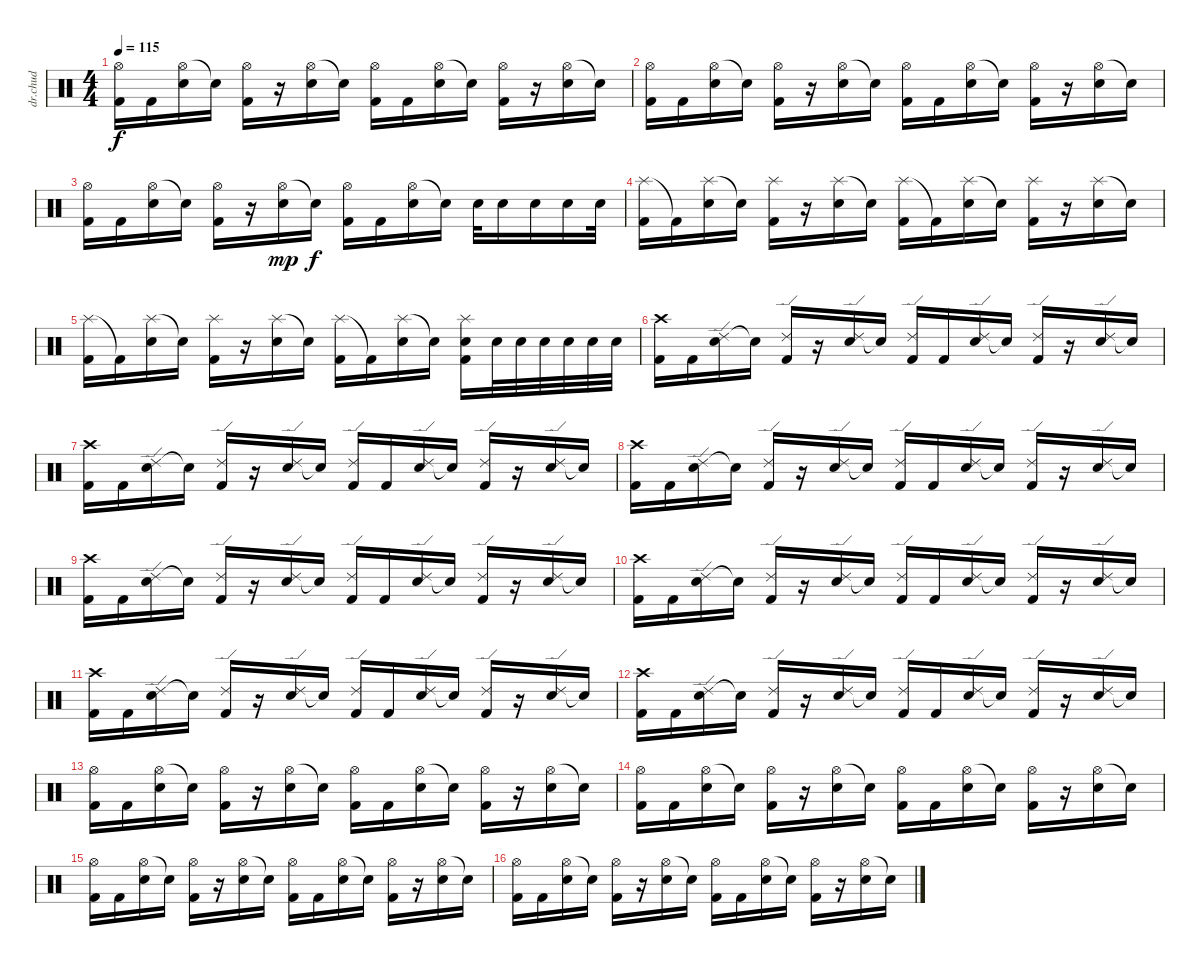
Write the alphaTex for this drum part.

\track ("dr.chud" "dr.chud") {instrument percussion}
\staff {score}
\articulation defaults
\ts (4 4)
\tempo 115
\clef neutral
\ks c
("Hi-Hat (open)" "Kick (hit) 2").16{dy f} "Kick (hit) 2".16 ("Hi-Hat (open)" "Electric Snare (hit)").16 "Snare (hit)"{t}.16 ("Hi-Hat (open)" "Kick (hit) 2").16 r.16 ("Hi-Hat (open)" "Electric Snare (hit)").16 "Electric Snare (hit)"{t}.16 ("Hi-Hat (open)" "Kick (hit) 2").16 "Kick (hit) 2".16 ("Hi-Hat (open)" "Electric Snare (hit)").16 "Snare (hit)"{t}.16 ("Hi-Hat (open)" "Kick (hit) 2").16 r.16 ("Hi-Hat (open)" "Electric Snare (hit)").16 "Snare (hit)"{t}.16 |
("Hi-Hat (open)" "Kick (hit) 2").16 "Kick (hit) 2".16 ("Hi-Hat (open)" "Electric Snare (hit)").16 "Snare (hit)"{t}.16 ("Hi-Hat (open)" "Kick (hit) 2").16 r.16 ("Hi-Hat (open)" "Electric Snare (hit)").16 "Electric Snare (hit)"{t}.16 ("Hi-Hat (open)" "Kick (hit) 2").16 "Kick (hit) 2".16 ("Hi-Hat (open)" "Electric Snare (hit)").16 "Snare (hit)"{t}.16 ("Hi-Hat (open)" "Kick (hit) 2").16 r.16 ("Hi-Hat (open)" "Electric Snare (hit)").16 "Snare (hit)"{t}.16 |
("Hi-Hat (open)" "Kick (hit) 2").16 "Kick (hit) 2".16 ("Hi-Hat (open)" "Electric Snare (hit)").16 "Snare (hit)"{t}.16 ("Hi-Hat (open)" "Kick (hit) 2").16 r.16 ("Hi-Hat (open)" "Electric Snare (hit)").16{dy mp} "Electric Snare (hit)"{t}.16{dy f} ("Hi-Hat (open)" "Kick (hit) 2").16 "Kick (hit) 2".16 ("Hi-Hat (open)" "Electric Snare (hit)").16 "Snare (hit)"{t}.16 "Electric Snare (hit)".32 "Electric Snare (hit)".16 "Electric Snare (hit)".16 "Electric Snare (hit)".16 "Electric Snare (hit)".32 |
("Splash (hit)" "Kick (hit) 2").16 "Kick (hit) 2"{t}.16 ("Splash (hit)" "Electric Snare (hit)").16 "Snare (hit)"{t}.16 ("Splash (hit)" "Kick (hit) 2").16 r.16 ("Splash (hit)" "Electric Snare (hit)").16 "Electric Snare (hit)"{t}.16 ("Splash (hit)" "Kick (hit) 2").16 "Kick (hit) 2"{t}.16 ("Splash (hit)" "Electric Snare (hit)").16 "Snare (hit)"{t}.16 ("Splash (hit)" "Kick (hit) 2").16 r.16 ("Splash (hit)" "Electric Snare (hit)").16 "Snare (hit)"{t}.16 |
("Splash (hit)" "Kick (hit) 2").16 "Kick (hit) 2"{t}.16 ("Splash (hit)" "Electric Snare (hit)").16 "Snare (hit)"{t}.16 ("Splash (hit)" "Kick (hit) 2").16 r.16 ("Splash (hit)" "Electric Snare (hit)").16 "Electric Snare (hit)"{t}.16 ("Splash (hit)" "Kick (hit) 2").16 "Kick (hit) 2"{t}.16 ("Splash (hit)" "Electric Snare (hit)").16 "Snare (hit)"{t}.16 ("Splash (hit)" "Electric Snare (hit)" "Kick (hit) 2").16 "Electric Snare (hit)".32 "Electric Snare (hit)".32 "Electric Snare (hit)".32 "Electric Snare (hit)".32 "Electric Snare (hit)".32 "Electric Snare (hit)".32 |
("Crash high (hit)" "Kick (hit) 2").16 "Kick (hit) 2".16 ("Ride (edge) 2" "Electric Snare (hit)").16 "Snare (hit)"{t}.16 ("Ride (edge) 2" "Kick (hit) 2").16 r.16 ("Ride (edge) 2" "Electric Snare (hit)").16 "Electric Snare (hit)"{t}.16 ("Ride (edge) 2" "Kick (hit) 2").16 "Kick (hit) 2".16 ("Ride (edge) 2" "Electric Snare (hit)").16 "Snare (hit)"{t}.16 ("Ride (edge) 2" "Kick (hit) 2").16 r.16 ("Ride (edge) 2" "Electric Snare (hit)").16 "Snare (hit)"{t}.16 |
("Crash high (hit)" "Kick (hit) 2").16 "Kick (hit) 2".16 ("Ride (edge) 2" "Electric Snare (hit)").16 "Snare (hit)"{t}.16 ("Ride (edge) 2" "Kick (hit) 2").16 r.16 ("Ride (edge) 2" "Electric Snare (hit)").16 "Electric Snare (hit)"{t}.16 ("Ride (edge) 2" "Kick (hit) 2").16 "Kick (hit) 2".16 ("Ride (edge) 2" "Electric Snare (hit)").16 "Snare (hit)"{t}.16 ("Ride (edge) 2" "Kick (hit) 2").16 r.16 ("Ride (edge) 2" "Electric Snare (hit)").16 "Snare (hit)"{t}.16 |
("Crash high (hit)" "Kick (hit) 2").16 "Kick (hit) 2".16 ("Ride (edge) 2" "Electric Snare (hit)").16 "Snare (hit)"{t}.16 ("Ride (edge) 2" "Kick (hit) 2").16 r.16 ("Ride (edge) 2" "Electric Snare (hit)").16 "Electric Snare (hit)"{t}.16 ("Ride (edge) 2" "Kick (hit) 2").16 "Kick (hit) 2".16 ("Ride (edge) 2" "Electric Snare (hit)").16 "Snare (hit)"{t}.16 ("Ride (edge) 2" "Kick (hit) 2").16 r.16 ("Ride (edge) 2" "Electric Snare (hit)").16 "Snare (hit)"{t}.16 |
("Crash high (hit)" "Kick (hit) 2").16 "Kick (hit) 2".16 ("Ride (edge) 2" "Electric Snare (hit)").16 "Snare (hit)"{t}.16 ("Ride (edge) 2" "Kick (hit) 2").16 r.16 ("Ride (edge) 2" "Electric Snare (hit)").16 "Electric Snare (hit)"{t}.16 ("Ride (edge) 2" "Kick (hit) 2").16 "Kick (hit) 2".16 ("Ride (edge) 2" "Electric Snare (hit)").16 "Snare (hit)"{t}.16 ("Ride (edge) 2" "Kick (hit) 2").16 r.16 ("Ride (edge) 2" "Electric Snare (hit)").16 "Snare (hit)"{t}.16 |
("Crash high (hit)" "Kick (hit) 2").16 "Kick (hit) 2".16 ("Ride (edge) 2" "Electric Snare (hit)").16 "Snare (hit)"{t}.16 ("Ride (edge) 2" "Kick (hit) 2").16 r.16 ("Ride (edge) 2" "Electric Snare (hit)").16 "Electric Snare (hit)"{t}.16 ("Ride (edge) 2" "Kick (hit) 2").16 "Kick (hit) 2".16 ("Ride (edge) 2" "Electric Snare (hit)").16 "Snare (hit)"{t}.16 ("Ride (edge) 2" "Kick (hit) 2").16 r.16 ("Ride (edge) 2" "Electric Snare (hit)").16 "Snare (hit)"{t}.16 |
("Crash high (hit)" "Kick (hit) 2").16 "Kick (hit) 2".16 ("Ride (edge) 2" "Electric Snare (hit)").16 "Snare (hit)"{t}.16 ("Ride (edge) 2" "Kick (hit) 2").16 r.16 ("Ride (edge) 2" "Electric Snare (hit)").16 "Electric Snare (hit)"{t}.16 ("Ride (edge) 2" "Kick (hit) 2").16 "Kick (hit) 2".16 ("Ride (edge) 2" "Electric Snare (hit)").16 "Snare (hit)"{t}.16 ("Ride (edge) 2" "Kick (hit) 2").16 r.16 ("Ride (edge) 2" "Electric Snare (hit)").16 "Snare (hit)"{t}.16 |
("Crash high (hit)" "Kick (hit) 2").16 "Kick (hit) 2".16 ("Ride (edge) 2" "Electric Snare (hit)").16 "Snare (hit)"{t}.16 ("Ride (edge) 2" "Kick (hit) 2").16 r.16 ("Ride (edge) 2" "Electric Snare (hit)").16 "Electric Snare (hit)"{t}.16 ("Ride (edge) 2" "Kick (hit) 2").16 "Kick (hit) 2".16 ("Ride (edge) 2" "Electric Snare (hit)").16 "Snare (hit)"{t}.16 ("Ride (edge) 2" "Kick (hit) 2").16 r.16 ("Ride (edge) 2" "Electric Snare (hit)").16 "Snare (hit)"{t}.16 |
("Hi-Hat (open)" "Kick (hit) 2").16 "Kick (hit) 2".16 ("Hi-Hat (open)" "Electric Snare (hit)").16 "Snare (hit)"{t}.16 ("Hi-Hat (open)" "Kick (hit) 2").16 r.16 ("Hi-Hat (open)" "Electric Snare (hit)").16 "Electric Snare (hit)"{t}.16 ("Hi-Hat (open)" "Kick (hit) 2").16 "Kick (hit) 2".16 ("Hi-Hat (open)" "Electric Snare (hit)").16 "Snare (hit)"{t}.16 ("Hi-Hat (open)" "Kick (hit) 2").16 r.16 ("Hi-Hat (open)" "Electric Snare (hit)").16 "Snare (hit)"{t}.16 |
("Hi-Hat (open)" "Kick (hit) 2").16 "Kick (hit) 2".16 ("Hi-Hat (open)" "Electric Snare (hit)").16 "Snare (hit)"{t}.16 ("Hi-Hat (open)" "Kick (hit) 2").16 r.16 ("Hi-Hat (open)" "Electric Snare (hit)").16 "Electric Snare (hit)"{t}.16 ("Hi-Hat (open)" "Kick (hit) 2").16 "Kick (hit) 2".16 ("Hi-Hat (open)" "Electric Snare (hit)").16 "Snare (hit)"{t}.16 ("Hi-Hat (open)" "Kick (hit) 2").16 r.16 ("Hi-Hat (open)" "Electric Snare (hit)").16 "Snare (hit)"{t}.16 |
("Hi-Hat (open)" "Kick (hit) 2").16 "Kick (hit) 2".16 ("Hi-Hat (open)" "Electric Snare (hit)").16 "Snare (hit)"{t}.16 ("Hi-Hat (open)" "Kick (hit) 2").16 r.16 ("Hi-Hat (open)" "Electric Snare (hit)").16 "Electric Snare (hit)"{t}.16 ("Hi-Hat (open)" "Kick (hit) 2").16 "Kick (hit) 2".16 ("Hi-Hat (open)" "Electric Snare (hit)").16 "Snare (hit)"{t}.16 ("Hi-Hat (open)" "Kick (hit) 2").16 r.16 ("Hi-Hat (open)" "Electric Snare (hit)").16 "Snare (hit)"{t}.16 |
("Hi-Hat (open)" "Kick (hit) 2").16 "Kick (hit) 2".16 ("Hi-Hat (open)" "Electric Snare (hit)").16 "Snare (hit)"{t}.16 ("Hi-Hat (open)" "Kick (hit) 2").16 r.16 ("Hi-Hat (open)" "Electric Snare (hit)").16 "Electric Snare (hit)"{t}.16 ("Hi-Hat (open)" "Kick (hit) 2").16 "Kick (hit) 2".16 ("Hi-Hat (open)" "Electric Snare (hit)").16 "Snare (hit)"{t}.16 ("Hi-Hat (open)" "Kick (hit) 2").16 r.16 ("Hi-Hat (open)" "Electric Snare (hit)").16 "Snare (hit)"{t}.16
